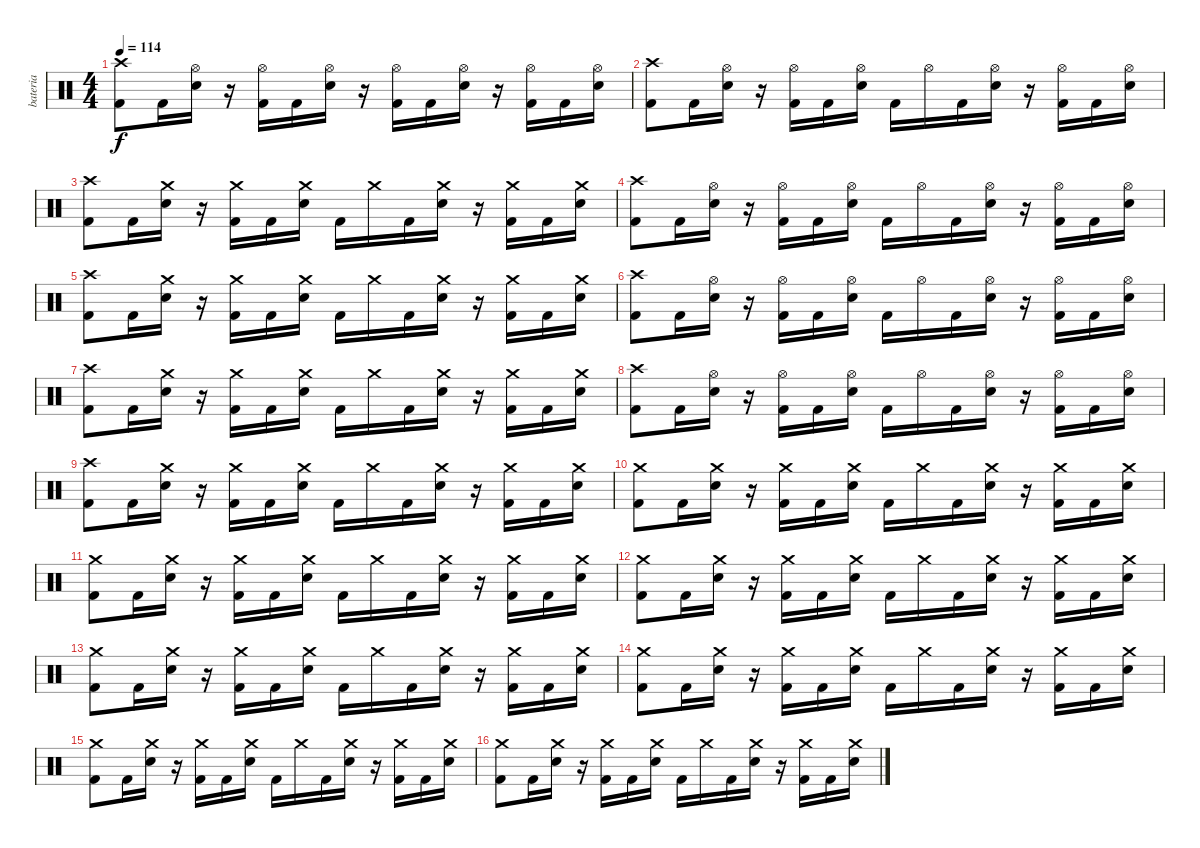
\track ("bateria" "bateria") {instrument percussion}
\staff {score}
\articulation defaults
\ts (4 4)
\tempo 114
\clef neutral
\ks c
("Crash high (hit)" "Kick (hit) 2").8{dy f} "Kick (hit) 2".16 ("Hi-Hat (open)" "Electric Snare (hit)").16 r.16 ("Hi-Hat (open)" "Kick (hit) 2").16 "Kick (hit) 2".16 ("Hi-Hat (open)" "Electric Snare (hit)").16 r.16 ("Hi-Hat (open)" "Kick (hit) 2").16 "Kick (hit) 2".16 ("Hi-Hat (open)" "Electric Snare (hit)").16 r.16 ("Hi-Hat (open)" "Kick (hit) 2").16 "Kick (hit) 2".16 ("Hi-Hat (open)" "Electric Snare (hit)").16 |
("Crash high (hit)" "Kick (hit) 2").8 "Kick (hit) 2".16 ("Hi-Hat (open)" "Electric Snare (hit)").16 r.16 ("Hi-Hat (open)" "Kick (hit) 2").16 "Kick (hit) 2".16 ("Hi-Hat (open)" "Electric Snare (hit)").16 "Kick (hit) 2".16 "Hi-Hat (open)".16 "Kick (hit) 2".16 ("Hi-Hat (open)" "Electric Snare (hit)").16 r.16 ("Hi-Hat (open)" "Kick (hit) 2").16 "Kick (hit) 2".16 ("Hi-Hat (open)" "Electric Snare (hit)").16 |
("Crash high (hit)" "Kick (hit) 2").8 "Kick (hit) 2".16 ("Crash medium (hit)" "Electric Snare (hit)").16 r.16 ("Crash medium (hit)" "Kick (hit) 2").16 "Kick (hit) 2".16 ("Crash medium (hit)" "Electric Snare (hit)").16 "Kick (hit) 2".16 "Crash medium (hit)".16 "Kick (hit) 2".16 ("Crash medium (hit)" "Electric Snare (hit)").16 r.16 ("Crash medium (hit)" "Kick (hit) 2").16 "Kick (hit) 2".16 ("Crash medium (hit)" "Electric Snare (hit)").16 |
("Crash high (hit)" "Kick (hit) 2").8 "Kick (hit) 2".16 ("Hi-Hat (open)" "Electric Snare (hit)").16 r.16 ("Hi-Hat (open)" "Kick (hit) 2").16 "Kick (hit) 2".16 ("Hi-Hat (open)" "Electric Snare (hit)").16 "Kick (hit) 2".16 "Hi-Hat (open)".16 "Kick (hit) 2".16 ("Hi-Hat (open)" "Electric Snare (hit)").16 r.16 ("Hi-Hat (open)" "Kick (hit) 2").16 "Kick (hit) 2".16 ("Hi-Hat (open)" "Electric Snare (hit)").16 |
("Crash high (hit)" "Kick (hit) 2").8 "Kick (hit) 2".16 ("Crash medium (hit)" "Electric Snare (hit)").16 r.16 ("Crash medium (hit)" "Kick (hit) 2").16 "Kick (hit) 2".16 ("Crash medium (hit)" "Electric Snare (hit)").16 "Kick (hit) 2".16 "Crash medium (hit)".16 "Kick (hit) 2".16 ("Crash medium (hit)" "Electric Snare (hit)").16 r.16 ("Crash medium (hit)" "Kick (hit) 2").16 "Kick (hit) 2".16 ("Crash medium (hit)" "Electric Snare (hit)").16 |
("Crash high (hit)" "Kick (hit) 2").8 "Kick (hit) 2".16 ("Hi-Hat (open)" "Electric Snare (hit)").16 r.16 ("Hi-Hat (open)" "Kick (hit) 2").16 "Kick (hit) 2".16 ("Hi-Hat (open)" "Electric Snare (hit)").16 "Kick (hit) 2".16 "Hi-Hat (open)".16 "Kick (hit) 2".16 ("Hi-Hat (open)" "Electric Snare (hit)").16 r.16 ("Hi-Hat (open)" "Kick (hit) 2").16 "Kick (hit) 2".16 ("Hi-Hat (open)" "Electric Snare (hit)").16 |
("Crash high (hit)" "Kick (hit) 2").8 "Kick (hit) 2".16 ("Crash medium (hit)" "Electric Snare (hit)").16 r.16 ("Crash medium (hit)" "Kick (hit) 2").16 "Kick (hit) 2".16 ("Crash medium (hit)" "Electric Snare (hit)").16 "Kick (hit) 2".16 "Crash medium (hit)".16 "Kick (hit) 2".16 ("Crash medium (hit)" "Electric Snare (hit)").16 r.16 ("Crash medium (hit)" "Kick (hit) 2").16 "Kick (hit) 2".16 ("Crash medium (hit)" "Electric Snare (hit)").16 |
("Crash high (hit)" "Kick (hit) 2").8 "Kick (hit) 2".16 ("Hi-Hat (open)" "Electric Snare (hit)").16 r.16 ("Hi-Hat (open)" "Kick (hit) 2").16 "Kick (hit) 2".16 ("Hi-Hat (open)" "Electric Snare (hit)").16 "Kick (hit) 2".16 "Hi-Hat (open)".16 "Kick (hit) 2".16 ("Hi-Hat (open)" "Electric Snare (hit)").16 r.16 ("Hi-Hat (open)" "Kick (hit) 2").16 "Kick (hit) 2".16 ("Hi-Hat (open)" "Electric Snare (hit)").16 |
("Crash high (hit)" "Kick (hit) 2").8 "Kick (hit) 2".16 ("Crash medium (hit)" "Electric Snare (hit)").16 r.16 ("Crash medium (hit)" "Kick (hit) 2").16 "Kick (hit) 2".16 ("Crash medium (hit)" "Electric Snare (hit)").16 "Kick (hit) 2".16 "Crash medium (hit)".16 "Kick (hit) 2".16 ("Crash medium (hit)" "Electric Snare (hit)").16 r.16 ("Crash medium (hit)" "Kick (hit) 2").16 "Kick (hit) 2".16 ("Crash medium (hit)" "Electric Snare (hit)").16 |
("Crash medium (hit)" "Kick (hit) 2").8 "Kick (hit) 2".16 ("Crash medium (hit)" "Electric Snare (hit)").16 r.16 ("Crash medium (hit)" "Kick (hit) 2").16 "Kick (hit) 2".16 ("Crash medium (hit)" "Electric Snare (hit)").16 "Kick (hit) 2".16 "Crash medium (hit)".16 "Kick (hit) 2".16 ("Crash medium (hit)" "Electric Snare (hit)").16 r.16 ("Crash medium (hit)" "Kick (hit) 2").16 "Kick (hit) 2".16 ("Crash medium (hit)" "Electric Snare (hit)").16 |
("Crash medium (hit)" "Kick (hit) 2").8 "Kick (hit) 2".16 ("Crash medium (hit)" "Electric Snare (hit)").16 r.16 ("Crash medium (hit)" "Kick (hit) 2").16 "Kick (hit) 2".16 ("Crash medium (hit)" "Electric Snare (hit)").16 "Kick (hit) 2".16 "Crash medium (hit)".16 "Kick (hit) 2".16 ("Crash medium (hit)" "Electric Snare (hit)").16 r.16 ("Crash medium (hit)" "Kick (hit) 2").16 "Kick (hit) 2".16 ("Crash medium (hit)" "Electric Snare (hit)").16 |
("Crash medium (hit)" "Kick (hit) 2").8 "Kick (hit) 2".16 ("Crash medium (hit)" "Electric Snare (hit)").16 r.16 ("Crash medium (hit)" "Kick (hit) 2").16 "Kick (hit) 2".16 ("Crash medium (hit)" "Electric Snare (hit)").16 "Kick (hit) 2".16 "Crash medium (hit)".16 "Kick (hit) 2".16 ("Crash medium (hit)" "Electric Snare (hit)").16 r.16 ("Crash medium (hit)" "Kick (hit) 2").16 "Kick (hit) 2".16 ("Crash medium (hit)" "Electric Snare (hit)").16 |
("Crash medium (hit)" "Kick (hit) 2").8 "Kick (hit) 2".16 ("Crash medium (hit)" "Electric Snare (hit)").16 r.16 ("Crash medium (hit)" "Kick (hit) 2").16 "Kick (hit) 2".16 ("Crash medium (hit)" "Electric Snare (hit)").16 "Kick (hit) 2".16 "Crash medium (hit)".16 "Kick (hit) 2".16 ("Crash medium (hit)" "Electric Snare (hit)").16 r.16 ("Crash medium (hit)" "Kick (hit) 2").16 "Kick (hit) 2".16 ("Crash medium (hit)" "Electric Snare (hit)").16 |
("Crash medium (hit)" "Kick (hit) 2").8 "Kick (hit) 2".16 ("Crash medium (hit)" "Electric Snare (hit)").16 r.16 ("Crash medium (hit)" "Kick (hit) 2").16 "Kick (hit) 2".16 ("Crash medium (hit)" "Electric Snare (hit)").16 "Kick (hit) 2".16 "Crash medium (hit)".16 "Kick (hit) 2".16 ("Crash medium (hit)" "Electric Snare (hit)").16 r.16 ("Crash medium (hit)" "Kick (hit) 2").16 "Kick (hit) 2".16 ("Crash medium (hit)" "Electric Snare (hit)").16 |
("Crash medium (hit)" "Kick (hit) 2").8 "Kick (hit) 2".16 ("Crash medium (hit)" "Electric Snare (hit)").16 r.16 ("Crash medium (hit)" "Kick (hit) 2").16 "Kick (hit) 2".16 ("Crash medium (hit)" "Electric Snare (hit)").16 "Kick (hit) 2".16 "Crash medium (hit)".16 "Kick (hit) 2".16 ("Crash medium (hit)" "Electric Snare (hit)").16 r.16 ("Crash medium (hit)" "Kick (hit) 2").16 "Kick (hit) 2".16 ("Crash medium (hit)" "Electric Snare (hit)").16 |
("Crash medium (hit)" "Kick (hit) 2").8 "Kick (hit) 2".16 ("Crash medium (hit)" "Electric Snare (hit)").16 r.16 ("Crash medium (hit)" "Kick (hit) 2").16 "Kick (hit) 2".16 ("Crash medium (hit)" "Electric Snare (hit)").16 "Kick (hit) 2".16 "Crash medium (hit)".16 "Kick (hit) 2".16 ("Crash medium (hit)" "Electric Snare (hit)").16 r.16 ("Crash medium (hit)" "Kick (hit) 2").16 "Kick (hit) 2".16 ("Crash medium (hit)" "Electric Snare (hit)").16
